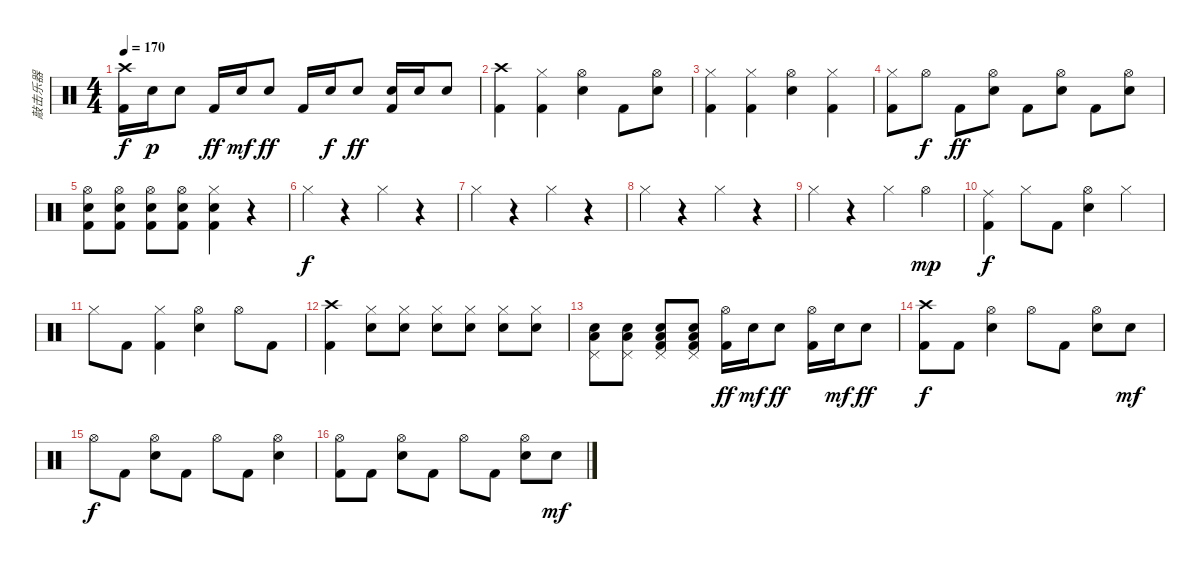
\track ("敲击乐器" "敲击乐器") {instrument percussion}
\staff {score}
\articulation defaults
\ts (4 4)
\tempo 170
\clef neutral
\ks c
("Crash high (hit)" "Kick (hit) 2").16{dy f} "Snare (hit) 2".16{dy p} "Snare (hit) 2".8 "Kick (hit) 2".16{dy ff} "Snare (hit) 2".16{dy mf} "Snare (hit) 2".8{dy ff} "Kick (hit) 2".16 "Snare (hit) 2".16{dy f} "Snare (hit) 2".8{dy ff} ("Snare (hit) 2" "Kick (hit) 2").16 "Snare (hit) 2".16 "Snare (hit) 2".8 |
("Crash high (hit)" "Kick (hit) 2").4 ("Hi-Hat (closed)" "Kick (hit) 2").4 ("Hi-Hat (open)" "Snare (hit) 2").4 "Kick (hit) 2".8 ("Hi-Hat (open)" "Snare (hit) 2").8 |
("Hi-Hat (closed)" "Kick (hit) 2").4 ("Hi-Hat (closed)" "Kick (hit) 2").4 ("Hi-Hat (open)" "Snare (hit) 2").4 ("Hi-Hat (closed)" "Kick (hit) 2").4 |
("Hi-Hat (closed)" "Kick (hit) 2").8 "Hi-Hat (open)".8{dy f} "Kick (hit) 2".8{dy ff} ("Hi-Hat (open)" "Snare (hit) 2").8 "Kick (hit) 2".8 ("Hi-Hat (open)" "Snare (hit) 2").8 "Kick (hit) 2".8 ("Hi-Hat (open)" "Snare (hit) 2").8 |
("Hi-Hat (open)" "Snare (hit) 2" "Kick (hit) 2").8 ("Hi-Hat (open)" "Snare (hit) 2" "Kick (hit) 2").8 ("Hi-Hat (open)" "Snare (hit) 2" "Kick (hit) 2").8 ("Hi-Hat (open)" "Snare (hit) 2" "Kick (hit) 2").8 ("Hi-Hat (closed)" "Snare (hit) 2" "Kick (hit) 2").4 r.4 |
"Hi-Hat (closed)".4{dy f} r.4 "Hi-Hat (closed)".4 r.4 |
"Hi-Hat (closed)".4 r.4 "Hi-Hat (closed)".4 r.4 |
"Hi-Hat (closed)".4 r.4 "Hi-Hat (closed)".4 r.4 |
"Hi-Hat (closed)".4 r.4 "Hi-Hat (closed)".4 "Hi-Hat (open)".4{dy mp} |
("Ride (middle)" "Kick (hit) 2").4{dy f} "Hi-Hat (closed)".8 "Kick (hit) 2".8 ("Hi-Hat (open)" "Snare (hit) 2").4 "Hi-Hat (closed)".4 |
"Hi-Hat (closed)".8 "Kick (hit) 2".8 ("Hi-Hat (closed)" "Kick (hit) 2").4 ("Hi-Hat (open)" "Snare (hit) 2").4 "Hi-Hat (open)".8 "Kick (hit) 2".8 |
("Crash high (hit)" "Kick (hit) 2").4 ("Hi-Hat (closed)" "Snare (hit) 2").8 ("Hi-Hat (closed)" "Snare (hit) 2").8 ("Hi-Hat (closed)" "Snare (hit) 2").8 ("Hi-Hat (closed)" "Snare (hit) 2").8 ("Hi-Hat (closed)" "Snare (hit) 2").8 ("Hi-Hat (closed)" "Snare (hit) 2").8 |
("Pedal Hi-Hat (hit)" "Low Floor Tom (hit)" "Snare (hit) 2").8 ("Pedal Hi-Hat (hit)" "Low Floor Tom (hit)" "Snare (hit) 2").8 ("Pedal Hi-Hat (hit)" "Low Floor Tom (hit)" "Snare (hit) 2" "Kick (hit) 2").8 ("Pedal Hi-Hat (hit)" "Low Floor Tom (hit)" "Snare (hit) 2" "Kick (hit) 2").8 ("Hi-Hat (open)" "Kick (hit) 2").16{dy ff} "Snare (hit) 2".16{dy mf} "Snare (hit) 2".8{dy ff} ("Hi-Hat (open)" "Kick (hit) 2").16 "Snare (hit) 2".16{dy mf} "Snare (hit) 2".8{dy ff} |
("Crash high (hit)" "Kick (hit) 2").8{dy f} "Kick (hit) 2".8 ("Hi-Hat (open)" "Snare (hit) 2").4 "Hi-Hat (open)".8 "Kick (hit) 2".8 ("Hi-Hat (open)" "Snare (hit) 2").8 "Snare (hit) 2".8{dy mf} |
"Hi-Hat (open)".8{dy f} "Kick (hit) 2".8 ("Hi-Hat (open)" "Snare (hit) 2").8 "Kick (hit) 2".8 "Hi-Hat (open)".8 "Kick (hit) 2".8 ("Hi-Hat (open)" "Snare (hit) 2").4 |
("Hi-Hat (open)" "Kick (hit) 2").8 "Kick (hit) 2".8 ("Hi-Hat (open)" "Snare (hit) 2").8 "Kick (hit) 2".8 "Hi-Hat (open)".8 "Kick (hit) 2".8 ("Hi-Hat (open)" "Snare (hit) 2").8 "Snare (hit) 2".8{dy mf}
